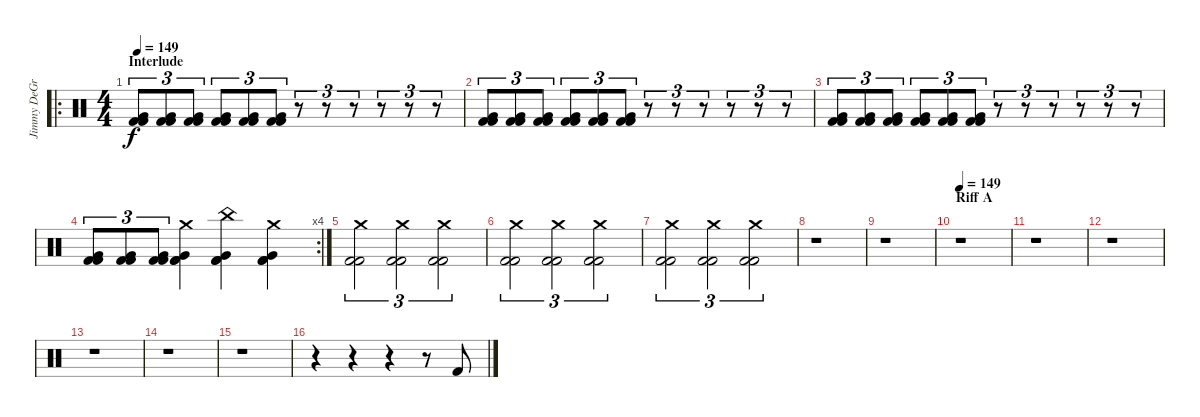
\track ("Jimmy DeGrasso" "Jimmy DeGr") {instrument percussion}
\staff {score}
\articulation defaults
\ro
\ts (4 4)
\section ("" "Interlude")
\tempo 149
\clef neutral
\ks c
("Very Low Tom (hit)" "Kick (hit) 2" "Kick (hit) 2").8{tu (3 2) dy f} ("Very Low Tom (hit)" "Kick (hit) 2" "Kick (hit) 2").8{tu (3 2)} ("Very Low Tom (hit)" "Kick (hit) 2" "Kick (hit) 2").8{tu (3 2)} ("Very Low Tom (hit)" "Kick (hit) 2" "Kick (hit) 2").8{tu (3 2)} ("Very Low Tom (hit)" "Kick (hit) 2" "Kick (hit) 2").8{tu (3 2)} ("Very Low Tom (hit)" "Kick (hit) 2" "Kick (hit) 2").8{tu (3 2)} r.8{tu (3 2)} r.8{tu (3 2)} r.8{tu (3 2)} r.8{tu (3 2)} r.8{tu (3 2)} r.8{tu (3 2)} |
("Very Low Tom (hit)" "Kick (hit) 2" "Kick (hit) 2").8{tu (3 2)} ("Very Low Tom (hit)" "Kick (hit) 2" "Kick (hit) 2").8{tu (3 2)} ("Very Low Tom (hit)" "Kick (hit) 2" "Kick (hit) 2").8{tu (3 2)} ("Very Low Tom (hit)" "Kick (hit) 2" "Kick (hit) 2").8{tu (3 2)} ("Very Low Tom (hit)" "Kick (hit) 2" "Kick (hit) 2").8{tu (3 2)} ("Very Low Tom (hit)" "Kick (hit) 2" "Kick (hit) 2").8{tu (3 2)} r.8{tu (3 2)} r.8{tu (3 2)} r.8{tu (3 2)} r.8{tu (3 2)} r.8{tu (3 2)} r.8{tu (3 2)} |
("Very Low Tom (hit)" "Kick (hit) 2" "Kick (hit) 2").8{tu (3 2)} ("Very Low Tom (hit)" "Kick (hit) 2" "Kick (hit) 2").8{tu (3 2)} ("Very Low Tom (hit)" "Kick (hit) 2" "Kick (hit) 2").8{tu (3 2)} ("Very Low Tom (hit)" "Kick (hit) 2" "Kick (hit) 2").8{tu (3 2)} ("Very Low Tom (hit)" "Kick (hit) 2" "Kick (hit) 2").8{tu (3 2)} ("Very Low Tom (hit)" "Kick (hit) 2" "Kick (hit) 2").8{tu (3 2)} r.8{tu (3 2)} r.8{tu (3 2)} r.8{tu (3 2)} r.8{tu (3 2)} r.8{tu (3 2)} r.8{tu (3 2)} |
\rc 4
("Very Low Tom (hit)" "Kick (hit) 2" "Kick (hit) 2").8{tu (3 2)} ("Very Low Tom (hit)" "Kick (hit) 2" "Kick (hit) 2").8{tu (3 2)} ("Very Low Tom (hit)" "Kick (hit) 2" "Kick (hit) 2").8{tu (3 2)} ("Crash medium (hit)" "Very Low Tom (hit)" "Kick (hit) 2" "Kick (hit) 2").4 ("China (hit)" "Very Low Tom (hit)" "Kick (hit) 2" "Kick (hit) 2").4 ("Crash medium (hit)" "Very Low Tom (hit)" "Kick (hit) 2" "Kick (hit) 2").4 |
("Crash medium (hit)" "Kick (hit) 2" "Kick (hit) 2").2{tu (3 2)} ("Crash medium (hit)" "Kick (hit) 2" "Kick (hit) 2").2{tu (3 2)} ("Crash medium (hit)" "Kick (hit) 2" "Kick (hit) 2").2{tu (3 2)} |
("Crash medium (hit)" "Kick (hit) 2" "Kick (hit) 2").2{tu (3 2)} ("Crash medium (hit)" "Kick (hit) 2" "Kick (hit) 2").2{tu (3 2)} ("Crash medium (hit)" "Kick (hit) 2" "Kick (hit) 2").2{tu (3 2)} |
("Crash medium (hit)" "Kick (hit) 2" "Kick (hit) 2").2{tu (3 2)} ("Crash medium (hit)" "Kick (hit) 2" "Kick (hit) 2").2{tu (3 2)} ("Crash medium (hit)" "Kick (hit) 2" "Kick (hit) 2").2{tu (3 2)} |
r.1 |
r.1 |
\section ("" "Riff A")
\tempo 149
r.1 |
r.1 |
r.1 |
r.1 |
r.1 |
r.1 |
r.4 r.4 r.4 r.8 "Kick (hit) 2".8
